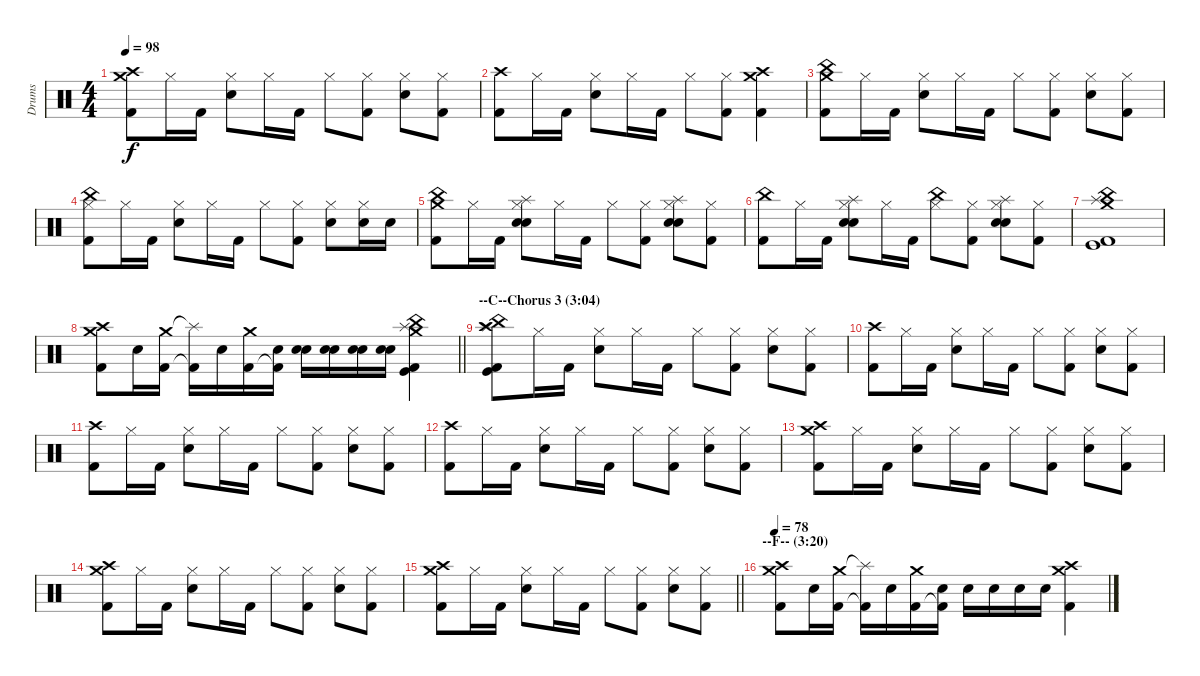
\track ("Drums" "Drums") {instrument percussion}
\staff {score}
\articulation defaults
\ts (4 4)
\tempo 98
\clef neutral
\ks c
("Crash high (hit)" "Crash medium (hit)" "Kick (hit) 2").8{dy f} "Hi-Hat (closed)".16 "Kick (hit) 2".16 ("Hi-Hat (closed)" "Electric Snare (hit)").8 "Hi-Hat (closed)".16 "Kick (hit) 2".16 "Hi-Hat (closed)".8 ("Hi-Hat (closed)" "Kick (hit) 2").8 ("Hi-Hat (closed)" "Electric Snare (hit)").8 ("Hi-Hat (closed)" "Kick (hit) 2").8 |
("Crash high (hit)" "Kick (hit) 2").8 "Hi-Hat (closed)".16 "Kick (hit) 2".16 ("Hi-Hat (closed)" "Electric Snare (hit)").8 "Hi-Hat (closed)".16 "Kick (hit) 2".16 "Hi-Hat (closed)".8 ("Hi-Hat (closed)" "Kick (hit) 2").8 ("Crash high (hit)" "Crash medium (hit)" "Kick (hit) 2").4 |
("Crash medium (hit)" "Kick (hit) 2" "China (hit)").8 "Hi-Hat (closed)".16 "Kick (hit) 2".16 ("Hi-Hat (closed)" "Electric Snare (hit)").8 "Hi-Hat (closed)".16 "Kick (hit) 2".16 "Hi-Hat (closed)".8 ("Hi-Hat (closed)" "Kick (hit) 2").8 ("Hi-Hat (closed)" "Electric Snare (hit)").8 ("Hi-Hat (closed)" "Kick (hit) 2").8 |
("Hi-Hat (closed)" "China (hit)" "Kick (hit) 2").8 "Hi-Hat (closed)".16 "Kick (hit) 2".16 ("Hi-Hat (closed)" "Electric Snare (hit)").8 "Hi-Hat (closed)".16 "Kick (hit) 2".16 "Hi-Hat (closed)".8 ("Hi-Hat (closed)" "Kick (hit) 2").8 ("Hi-Hat (closed)" "Electric Snare (hit)").8 ("Hi-Hat (closed)" "Snare (hit) 2").16 "Snare (hit) 2".16 |
("Crash medium (hit)" "Kick (hit) 2" "China (hit)").8 "Hi-Hat (closed)".16 "Kick (hit) 2".16 ("Hi-Hat (closed)" "Electric Snare (hit)" "Snare (hit) 2" "Splash (hit)").8 "Hi-Hat (closed)".16 "Kick (hit) 2".16 "Hi-Hat (closed)".8 ("Hi-Hat (closed)" "Kick (hit) 2").8 ("Hi-Hat (closed)" "Electric Snare (hit)" "Snare (hit) 2" "Splash (hit)").8 ("Hi-Hat (closed)" "Kick (hit) 2").8 |
("China (hit)" "Kick (hit) 2").8 "Hi-Hat (closed)".16 "Kick (hit) 2".16 ("Hi-Hat (closed)" "Electric Snare (hit)" "Snare (hit) 2" "Splash (hit)").8 "Hi-Hat (closed)".16 "Kick (hit) 2".16 ("Hi-Hat (closed)" "China (hit)").8 ("Hi-Hat (closed)" "Kick (hit) 2").8 ("Hi-Hat (closed)" "Electric Snare (hit)" "Snare (hit) 2" "Splash (hit)").8 ("Hi-Hat (closed)" "Kick (hit) 2").8 |
("Crash medium (hit)" "Kick (hit) 2" "China (hit)" "Kick (hit)" "Splash (hit)").1 |
\barLineRight lightlight
("Crash high (hit)" "Crash medium (hit)" "Kick (hit) 2").8 "Electric Snare (hit)".16 ("Crash medium (hit)" "Kick (hit) 2").16 ("Splash (hit)"{t} "Kick (hit) 2"{t}).16 "Electric Snare (hit)".16 ("Crash medium (hit)" "Kick (hit) 2").16 ("Electric Snare (hit)" "Kick (hit) 2"{t}).16 ("Electric Snare (hit)" "Snare (hit) 2").16 ("Electric Snare (hit)" "Snare (hit) 2").16 ("Electric Snare (hit)" "Snare (hit) 2").16 ("Electric Snare (hit)" "Snare (hit) 2").16 ("Crash medium (hit)" "Kick (hit) 2" "China (hit)" "Kick (hit)" "Splash (hit)").4 |
\section ("" "--C--Chorus 3 (3:04)")
("Crash high (hit)" "Kick (hit) 2" "China (hit)" "Kick (hit)" "Splash (hit)").8 "Hi-Hat (closed)".16 "Kick (hit) 2".16 ("Hi-Hat (closed)" "Electric Snare (hit)").8 "Hi-Hat (closed)".16 "Kick (hit) 2".16 "Hi-Hat (closed)".8 ("Hi-Hat (closed)" "Kick (hit) 2").8 ("Hi-Hat (closed)" "Electric Snare (hit)").8 ("Hi-Hat (closed)" "Kick (hit) 2").8 |
("Crash high (hit)" "Kick (hit) 2").8 "Hi-Hat (closed)".16 "Kick (hit) 2".16 ("Hi-Hat (closed)" "Electric Snare (hit)").8 "Hi-Hat (closed)".16 "Kick (hit) 2".16 "Hi-Hat (closed)".8 ("Hi-Hat (closed)" "Kick (hit) 2").8 ("Hi-Hat (closed)" "Electric Snare (hit)").8 ("Hi-Hat (closed)" "Kick (hit) 2").8 |
("Crash high (hit)" "Kick (hit) 2").8 "Hi-Hat (closed)".16 "Kick (hit) 2".16 ("Hi-Hat (closed)" "Electric Snare (hit)").8 "Hi-Hat (closed)".16 "Kick (hit) 2".16 "Hi-Hat (closed)".8 ("Hi-Hat (closed)" "Kick (hit) 2").8 ("Hi-Hat (closed)" "Electric Snare (hit)").8 ("Hi-Hat (closed)" "Kick (hit) 2").8 |
("Crash high (hit)" "Kick (hit) 2").8 "Hi-Hat (closed)".16 "Kick (hit) 2".16 ("Hi-Hat (closed)" "Electric Snare (hit)").8 "Hi-Hat (closed)".16 "Kick (hit) 2".16 "Hi-Hat (closed)".8 ("Hi-Hat (closed)" "Kick (hit) 2").8 ("Hi-Hat (closed)" "Electric Snare (hit)").8 ("Hi-Hat (closed)" "Kick (hit) 2").8 |
("Crash high (hit)" "Crash medium (hit)" "Kick (hit) 2").8 "Hi-Hat (closed)".16 "Kick (hit) 2".16 ("Hi-Hat (closed)" "Electric Snare (hit)").8 "Hi-Hat (closed)".16 "Kick (hit) 2".16 "Hi-Hat (closed)".8 ("Hi-Hat (closed)" "Kick (hit) 2").8 ("Hi-Hat (closed)" "Electric Snare (hit)").8 ("Hi-Hat (closed)" "Kick (hit) 2").8 |
("Crash high (hit)" "Crash medium (hit)" "Kick (hit) 2").8 "Hi-Hat (closed)".16 "Kick (hit) 2".16 ("Hi-Hat (closed)" "Electric Snare (hit)").8 "Hi-Hat (closed)".16 "Kick (hit) 2".16 "Hi-Hat (closed)".8 ("Hi-Hat (closed)" "Kick (hit) 2").8 ("Hi-Hat (closed)" "Electric Snare (hit)").8 ("Hi-Hat (closed)" "Kick (hit) 2").8 |
\barLineRight lightlight
("Crash high (hit)" "Crash medium (hit)" "Kick (hit) 2").8 "Hi-Hat (closed)".16 "Kick (hit) 2".16 ("Hi-Hat (closed)" "Electric Snare (hit)").8 "Hi-Hat (closed)".16 "Kick (hit) 2".16 "Hi-Hat (closed)".8 ("Hi-Hat (closed)" "Kick (hit) 2").8 ("Hi-Hat (closed)" "Electric Snare (hit)").8 ("Hi-Hat (closed)" "Kick (hit) 2").8 |
\section ("" "--F-- (3:20)")
\tempo 78
("Crash high (hit)" "Crash medium (hit)" "Kick (hit) 2").8 "Electric Snare (hit)".16 ("Crash medium (hit)" "Kick (hit) 2").16 ("Splash (hit)"{t} "Kick (hit) 2"{t}).16 "Electric Snare (hit)".16 ("Crash medium (hit)" "Kick (hit) 2").16 ("Electric Snare (hit)" "Kick (hit) 2"{t}).16 "Electric Snare (hit)".16 "Electric Snare (hit)".16 "Electric Snare (hit)".16 "Electric Snare (hit)".16 ("Crash high (hit)" "Crash medium (hit)" "Kick (hit) 2").4
